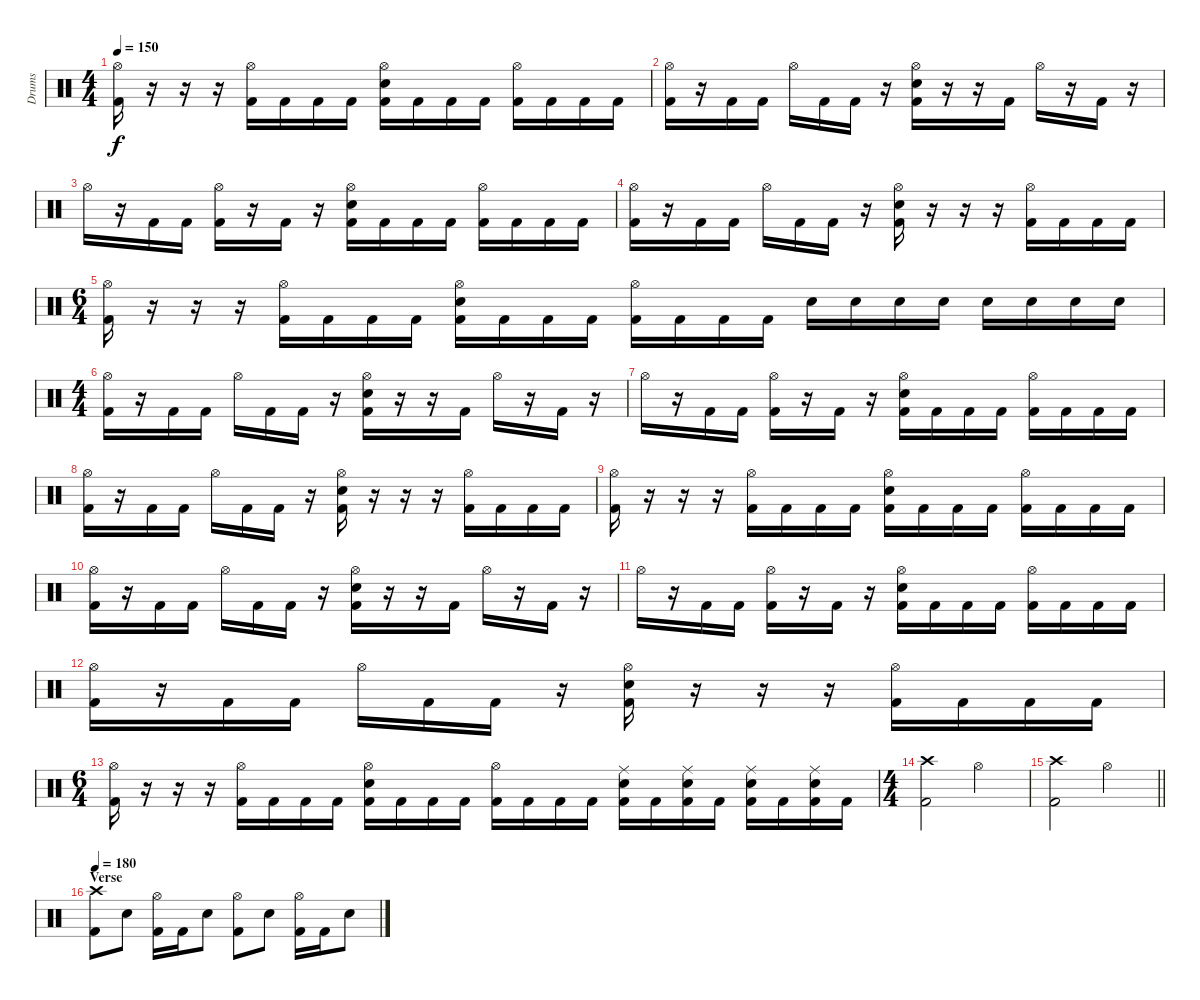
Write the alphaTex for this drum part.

\track ("Drums" "Drums") {instrument percussion}
\staff {score}
\articulation defaults
\ts (4 4)
\tempo 150
\clef neutral
\ks c
("Hi-Hat (open)" "Kick (hit) 2").16{dy f} r.16 r.16 r.16 ("Hi-Hat (open)" "Kick (hit) 2").16 "Kick (hit) 2".16 "Kick (hit) 2".16 "Kick (hit) 2".16 ("Hi-Hat (open)" "Electric Snare (hit)" "Kick (hit) 2").16 "Kick (hit) 2".16 "Kick (hit) 2".16 "Kick (hit) 2".16 ("Hi-Hat (open)" "Kick (hit) 2").16 "Kick (hit) 2".16 "Kick (hit) 2".16 "Kick (hit) 2".16 |
("Hi-Hat (open)" "Kick (hit) 2").16 r.16 "Kick (hit) 2".16 "Kick (hit) 2".16 "Hi-Hat (open)".16 "Kick (hit) 2".16 "Kick (hit) 2".16 r.16 ("Hi-Hat (open)" "Electric Snare (hit)" "Kick (hit) 2").16 r.16 r.16 "Kick (hit) 2".16 "Hi-Hat (open)".16 r.16 "Kick (hit) 2".16 r.16 |
"Hi-Hat (open)".16 r.16 "Kick (hit) 2".16 "Kick (hit) 2".16 ("Hi-Hat (open)" "Kick (hit) 2").16 r.16 "Kick (hit) 2".16 r.16 ("Hi-Hat (open)" "Electric Snare (hit)" "Kick (hit) 2").16 "Kick (hit) 2".16 "Kick (hit) 2".16 "Kick (hit) 2".16 ("Hi-Hat (open)" "Kick (hit) 2").16 "Kick (hit) 2".16 "Kick (hit) 2".16 "Kick (hit) 2".16 |
("Hi-Hat (open)" "Kick (hit) 2").16 r.16 "Kick (hit) 2".16 "Kick (hit) 2".16 "Hi-Hat (open)".16 "Kick (hit) 2".16 "Kick (hit) 2".16 r.16 ("Hi-Hat (open)" "Electric Snare (hit)" "Kick (hit) 2").16 r.16 r.16 r.16 ("Hi-Hat (open)" "Kick (hit) 2").16 "Kick (hit) 2".16 "Kick (hit) 2".16 "Kick (hit) 2".16 |
\ts (6 4)
("Hi-Hat (open)" "Kick (hit) 2").16 r.16 r.16 r.16 ("Hi-Hat (open)" "Kick (hit) 2").16 "Kick (hit) 2".16 "Kick (hit) 2".16 "Kick (hit) 2".16 ("Hi-Hat (open)" "Electric Snare (hit)" "Kick (hit) 2").16 "Kick (hit) 2".16 "Kick (hit) 2".16 "Kick (hit) 2".16 ("Hi-Hat (open)" "Kick (hit) 2").16 "Kick (hit) 2".16 "Kick (hit) 2".16 "Kick (hit) 2".16 "Electric Snare (hit)".16 "Electric Snare (hit)".16 "Electric Snare (hit)".16 "Electric Snare (hit)".16 "Electric Snare (hit)".16 "Electric Snare (hit)".16 "Electric Snare (hit)".16 "Electric Snare (hit)".16 |
\ts (4 4)
("Hi-Hat (open)" "Kick (hit) 2").16 r.16 "Kick (hit) 2".16 "Kick (hit) 2".16 "Hi-Hat (open)".16 "Kick (hit) 2".16 "Kick (hit) 2".16 r.16 ("Hi-Hat (open)" "Electric Snare (hit)" "Kick (hit) 2").16 r.16 r.16 "Kick (hit) 2".16 "Hi-Hat (open)".16 r.16 "Kick (hit) 2".16 r.16 |
"Hi-Hat (open)".16 r.16 "Kick (hit) 2".16 "Kick (hit) 2".16 ("Hi-Hat (open)" "Kick (hit) 2").16 r.16 "Kick (hit) 2".16 r.16 ("Hi-Hat (open)" "Electric Snare (hit)" "Kick (hit) 2").16 "Kick (hit) 2".16 "Kick (hit) 2".16 "Kick (hit) 2".16 ("Hi-Hat (open)" "Kick (hit) 2").16 "Kick (hit) 2".16 "Kick (hit) 2".16 "Kick (hit) 2".16 |
("Hi-Hat (open)" "Kick (hit) 2").16 r.16 "Kick (hit) 2".16 "Kick (hit) 2".16 "Hi-Hat (open)".16 "Kick (hit) 2".16 "Kick (hit) 2".16 r.16 ("Hi-Hat (open)" "Electric Snare (hit)" "Kick (hit) 2").16 r.16 r.16 r.16 ("Hi-Hat (open)" "Kick (hit) 2").16 "Kick (hit) 2".16 "Kick (hit) 2".16 "Kick (hit) 2".16 |
("Hi-Hat (open)" "Kick (hit) 2").16 r.16 r.16 r.16 ("Hi-Hat (open)" "Kick (hit) 2").16 "Kick (hit) 2".16 "Kick (hit) 2".16 "Kick (hit) 2".16 ("Hi-Hat (open)" "Electric Snare (hit)" "Kick (hit) 2").16 "Kick (hit) 2".16 "Kick (hit) 2".16 "Kick (hit) 2".16 ("Hi-Hat (open)" "Kick (hit) 2").16 "Kick (hit) 2".16 "Kick (hit) 2".16 "Kick (hit) 2".16 |
("Hi-Hat (open)" "Kick (hit) 2").16 r.16 "Kick (hit) 2".16 "Kick (hit) 2".16 "Hi-Hat (open)".16 "Kick (hit) 2".16 "Kick (hit) 2".16 r.16 ("Hi-Hat (open)" "Electric Snare (hit)" "Kick (hit) 2").16 r.16 r.16 "Kick (hit) 2".16 "Hi-Hat (open)".16 r.16 "Kick (hit) 2".16 r.16 |
"Hi-Hat (open)".16 r.16 "Kick (hit) 2".16 "Kick (hit) 2".16 ("Hi-Hat (open)" "Kick (hit) 2").16 r.16 "Kick (hit) 2".16 r.16 ("Hi-Hat (open)" "Electric Snare (hit)" "Kick (hit) 2").16 "Kick (hit) 2".16 "Kick (hit) 2".16 "Kick (hit) 2".16 ("Hi-Hat (open)" "Kick (hit) 2").16 "Kick (hit) 2".16 "Kick (hit) 2".16 "Kick (hit) 2".16 |
("Hi-Hat (open)" "Kick (hit) 2").16 r.16 "Kick (hit) 2".16 "Kick (hit) 2".16 "Hi-Hat (open)".16 "Kick (hit) 2".16 "Kick (hit) 2".16 r.16 ("Hi-Hat (open)" "Electric Snare (hit)" "Kick (hit) 2").16 r.16 r.16 r.16 ("Hi-Hat (open)" "Kick (hit) 2").16 "Kick (hit) 2".16 "Kick (hit) 2".16 "Kick (hit) 2".16 |
\ts (6 4)
("Hi-Hat (open)" "Kick (hit) 2").16 r.16 r.16 r.16 ("Hi-Hat (open)" "Kick (hit) 2").16 "Kick (hit) 2".16 "Kick (hit) 2".16 "Kick (hit) 2".16 ("Hi-Hat (open)" "Electric Snare (hit)" "Kick (hit) 2").16 "Kick (hit) 2".16 "Kick (hit) 2".16 "Kick (hit) 2".16 ("Hi-Hat (open)" "Kick (hit) 2").16 "Kick (hit) 2".16 "Kick (hit) 2".16 "Kick (hit) 2".16 ("Ride (middle)" "Electric Snare (hit)" "Kick (hit) 2").16 "Kick (hit) 2".16 ("Ride (middle)" "Electric Snare (hit)" "Kick (hit) 2").16 "Kick (hit) 2".16 ("Ride (middle)" "Electric Snare (hit)" "Kick (hit) 2").16 "Kick (hit) 2".16 ("Ride (middle)" "Electric Snare (hit)" "Kick (hit) 2").16 "Kick (hit) 2".16 |
\ts (4 4)
("Crash high (hit)" "Kick (hit) 2").2 "Hi-Hat (open)".2 |
\barLineRight lightlight
("Crash high (hit)" "Kick (hit) 2").2 "Hi-Hat (open)".2 |
\section ("" "Verse")
\tempo 180
("Crash high (hit)" "Kick (hit) 2").8 "Electric Snare (hit)".8 ("Hi-Hat (open)" "Kick (hit) 2").16 "Kick (hit) 2".16 "Electric Snare (hit)".8 ("Hi-Hat (open)" "Kick (hit) 2").8 "Electric Snare (hit)".8 ("Hi-Hat (open)" "Kick (hit) 2").16 "Kick (hit) 2".16 "Electric Snare (hit)".8
